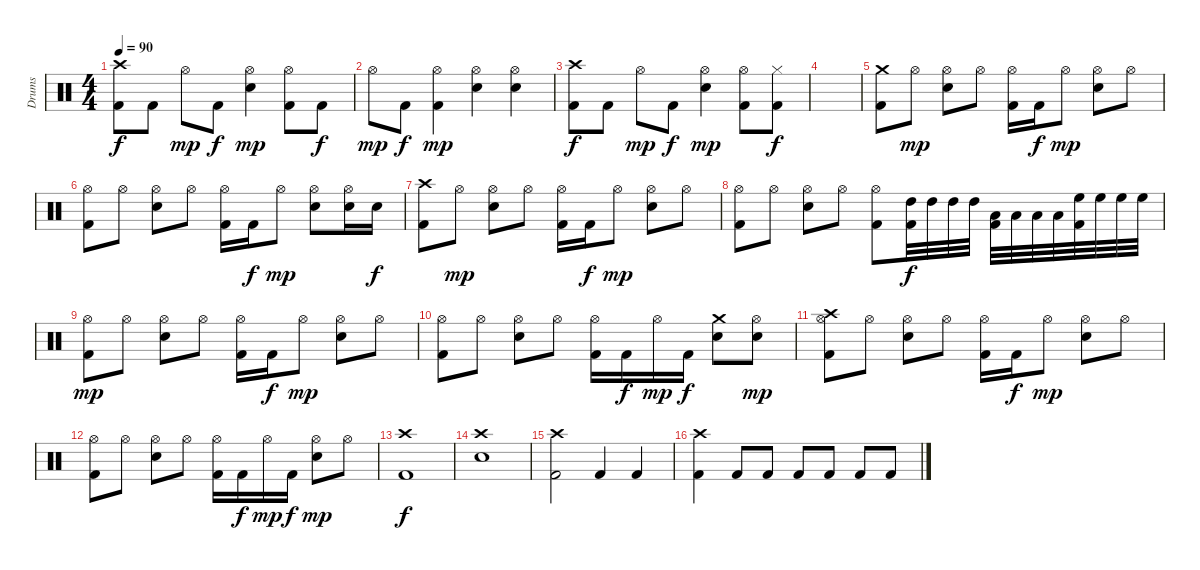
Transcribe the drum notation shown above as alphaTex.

\track ("Drums" "Drums") {instrument percussion}
\staff {score}
\articulation defaults
\ts (4 4)
\tempo 90
\clef neutral
\ks c
("Crash high (hit)" "Kick (hit) 2").8{dy f} "Kick (hit) 2".8 "Hi-Hat (open)".8{dy mp} "Kick (hit) 2".8{dy f} ("Hi-Hat (open)" "Snare (hit) 2").4{dy mp} ("Hi-Hat (open)" "Kick (hit) 2").8 "Kick (hit) 2".8{dy f} |
"Hi-Hat (open)".8{dy mp} "Kick (hit) 2".8{dy f} ("Hi-Hat (open)" "Kick (hit) 2").4{dy mp} ("Hi-Hat (open)" "Snare (hit) 2").4 ("Hi-Hat (open)" "Snare (hit) 2").4 |
("Crash high (hit)" "Kick (hit) 2").8{dy f} "Kick (hit) 2".8 "Hi-Hat (open)".8{dy mp} "Kick (hit) 2".8{dy f} ("Hi-Hat (open)" "Snare (hit) 2").4{dy mp} ("Hi-Hat (open)" "Kick (hit) 2").8 ("Hi-Hat (closed)" "Kick (hit) 2").8{dy f} |
|
\section ("" "")
("Crash medium (hit)" "Kick (hit) 2").8 "Hi-Hat (open)".8{dy mp} ("Hi-Hat (open)" "Snare (hit) 2").8 "Hi-Hat (open)".8 ("Hi-Hat (open)" "Kick (hit) 2").16 "Kick (hit) 2".16{dy f} "Hi-Hat (open)".8{dy mp} ("Hi-Hat (open)" "Snare (hit) 2").8 "Hi-Hat (open)".8 |
("Hi-Hat (open)" "Kick (hit) 2").8 "Hi-Hat (open)".8 ("Hi-Hat (open)" "Snare (hit) 2").8 "Hi-Hat (open)".8 ("Hi-Hat (open)" "Kick (hit) 2").16 "Kick (hit) 2".16{dy f} "Hi-Hat (open)".8{dy mp} ("Hi-Hat (open)" "Snare (hit) 2").8 ("Hi-Hat (open)" "Snare (hit) 2").16 "Snare (hit) 2".16{dy f} |
("Crash high (hit)" "Kick (hit) 2").8 "Hi-Hat (open)".8{dy mp} ("Hi-Hat (open)" "Snare (hit) 2").8 "Hi-Hat (open)".8 ("Hi-Hat (open)" "Kick (hit) 2").16 "Kick (hit) 2".16{dy f} "Hi-Hat (open)".8{dy mp} ("Hi-Hat (open)" "Snare (hit) 2").8 "Hi-Hat (open)".8 |
("Hi-Hat (open)" "Kick (hit) 2").8 "Hi-Hat (open)".8 ("Hi-Hat (open)" "Snare (hit) 2").8 "Hi-Hat (open)".8 ("Hi-Hat (open)" "Kick (hit) 2").8 ("High Tom (hit)" "Kick (hit) 2").32{dy f} "High Tom (hit)".32 "High Tom (hit)".32 "High Tom (hit)".32 ("Low Tom (hit)" "Kick (hit) 2").32 "Low Tom (hit)".32 "Low Tom (hit)".32 "Low Tom (hit)".32 ("High Floor Tom (hit)" "Kick (hit) 2").32 "High Floor Tom (hit)".32 "High Floor Tom (hit)".32 "High Floor Tom (hit)".32 |
("Hi-Hat (open)" "Kick (hit) 2").8{dy mp} "Hi-Hat (open)".8 ("Hi-Hat (open)" "Snare (hit) 2").8 "Hi-Hat (open)".8 ("Hi-Hat (open)" "Kick (hit) 2").16 "Kick (hit) 2".16{dy f} "Hi-Hat (open)".8{dy mp} ("Hi-Hat (open)" "Snare (hit) 2").8 "Hi-Hat (open)".8 |
("Hi-Hat (open)" "Kick (hit) 2").8 "Hi-Hat (open)".8 ("Hi-Hat (open)" "Snare (hit) 2").8 "Hi-Hat (open)".8 ("Hi-Hat (open)" "Kick (hit) 2").16 "Kick (hit) 2".16{dy f} "Hi-Hat (open)".16{dy mp} "Kick (hit) 2".16{dy f} ("Crash medium (hit)" "Snare (hit) 2").8 ("Hi-Hat (open)" "Snare (hit) 2").8{dy mp} |
("Crash high (hit)" "Hi-Hat (open)" "Kick (hit) 2").8 "Hi-Hat (open)".8 ("Hi-Hat (open)" "Snare (hit) 2").8 "Hi-Hat (open)".8 ("Hi-Hat (open)" "Kick (hit) 2").16 "Kick (hit) 2".16{dy f} "Hi-Hat (open)".8{dy mp} ("Hi-Hat (open)" "Snare (hit) 2").8 "Hi-Hat (open)".8 |
("Hi-Hat (open)" "Kick (hit) 2").8 "Hi-Hat (open)".8 ("Hi-Hat (open)" "Snare (hit) 2").8 "Hi-Hat (open)".8 ("Hi-Hat (open)" "Kick (hit) 2").16 "Kick (hit) 2".16{dy f} "Hi-Hat (open)".16{dy mp} "Kick (hit) 2".16{dy f} ("Hi-Hat (open)" "Snare (hit) 2").8{dy mp} "Hi-Hat (open)".8 |
\section ("" "")
("Crash high (hit)" "Kick (hit) 2").1{dy f} |
("Crash high (hit)" "Snare (hit) 2").1 |
("Crash high (hit)" "Kick (hit) 2").2 "Kick (hit) 2".4 "Kick (hit) 2".4 |
("Crash high (hit)" "Kick (hit) 2").4 "Kick (hit) 2".8 "Kick (hit) 2".8 "Kick (hit) 2".8 "Kick (hit) 2".8 "Kick (hit) 2".8 "Kick (hit) 2".8
